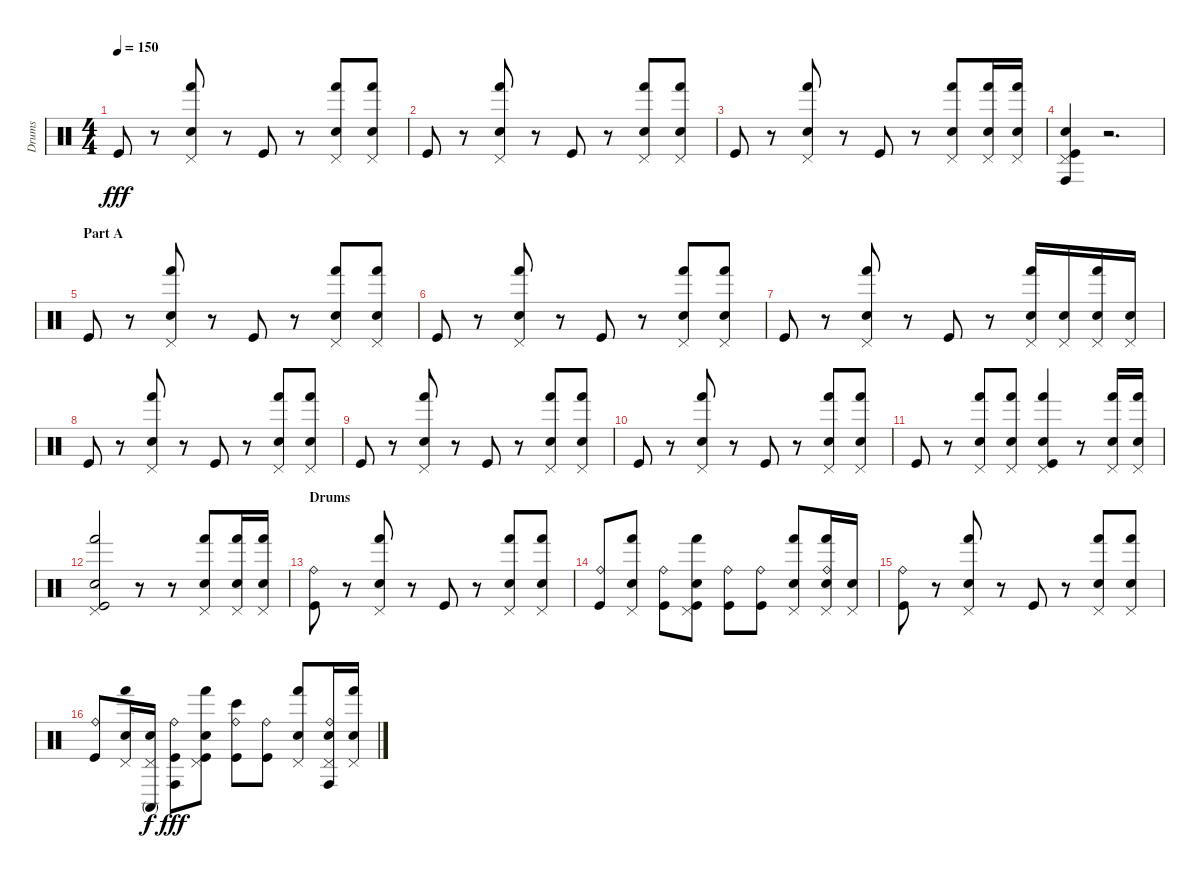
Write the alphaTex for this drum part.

\track ("Drums" "Drums") {instrument percussion}
\staff {score}
\articulation defaults
\ts (4 4)
\tempo 150
\clef neutral
\ks c "Kick (hit)".8{dy fff}
r.8 ("Pedal Hi-Hat (hit)" "Hand (hit)" "Electric Snare (hit)").8 r.8 "Kick (hit)".8 r.8 ("Pedal Hi-Hat (hit)" "Hand (hit)" "Electric Snare (hit)").8 ("Pedal Hi-Hat (hit)" "Hand (hit)" "Electric Snare (hit)").8 |
"Kick (hit)".8 r.8 ("Pedal Hi-Hat (hit)" "Hand (hit)" "Electric Snare (hit)").8 r.8 "Kick (hit)".8 r.8 ("Pedal Hi-Hat (hit)" "Hand (hit)" "Electric Snare (hit)").8 ("Pedal Hi-Hat (hit)" "Hand (hit)" "Electric Snare (hit)").8 |
"Kick (hit)".8 r.8 ("Pedal Hi-Hat (hit)" "Hand (hit)" "Electric Snare (hit)").8 r.8 "Kick (hit)".8 r.8 ("Pedal Hi-Hat (hit)" "Hand (hit)" "Electric Snare (hit)").8 ("Pedal Hi-Hat (hit)" "Hand (hit)" "Electric Snare (hit)").16 ("Pedal Hi-Hat (hit)" "Hand (hit)" "Electric Snare (hit)").16 |
("Pedal Hi-Hat (hit)" "Conga high (hit)" "Electric Snare (hit)" "Kick (hit)").4 r.2{d} |
\section ("" "Part A")
"Kick (hit)".8 r.8 ("Pedal Hi-Hat (hit)" "Hand (hit)" "Electric Snare (hit)").8 r.8 "Kick (hit)".8 r.8 ("Pedal Hi-Hat (hit)" "Hand (hit)" "Electric Snare (hit)").8 ("Pedal Hi-Hat (hit)" "Hand (hit)" "Electric Snare (hit)").8 |
"Kick (hit)".8 r.8 ("Pedal Hi-Hat (hit)" "Hand (hit)" "Electric Snare (hit)").8 r.8 "Kick (hit)".8 r.8 ("Pedal Hi-Hat (hit)" "Hand (hit)" "Electric Snare (hit)").8 ("Pedal Hi-Hat (hit)" "Hand (hit)" "Electric Snare (hit)").8 |
"Kick (hit)".8 r.8 ("Pedal Hi-Hat (hit)" "Hand (hit)" "Electric Snare (hit)").8 r.8 "Kick (hit)".8 r.8 ("Pedal Hi-Hat (hit)" "Hand (hit)" "Electric Snare (hit)").16 ("Pedal Hi-Hat (hit)" "Electric Snare (hit)").16 ("Pedal Hi-Hat (hit)" "Hand (hit)" "Electric Snare (hit)").16 ("Pedal Hi-Hat (hit)" "Electric Snare (hit)").16 |
"Kick (hit)".8 r.8 ("Pedal Hi-Hat (hit)" "Hand (hit)" "Electric Snare (hit)").8 r.8 "Kick (hit)".8 r.8 ("Pedal Hi-Hat (hit)" "Hand (hit)" "Electric Snare (hit)").8 ("Pedal Hi-Hat (hit)" "Hand (hit)" "Electric Snare (hit)").8 |
"Kick (hit)".8 r.8 ("Pedal Hi-Hat (hit)" "Hand (hit)" "Electric Snare (hit)").8 r.8 "Kick (hit)".8 r.8 ("Pedal Hi-Hat (hit)" "Hand (hit)" "Electric Snare (hit)").8 ("Pedal Hi-Hat (hit)" "Hand (hit)" "Electric Snare (hit)").8 |
"Kick (hit)".8 r.8 ("Pedal Hi-Hat (hit)" "Hand (hit)" "Electric Snare (hit)").8 r.8 "Kick (hit)".8 r.8 ("Pedal Hi-Hat (hit)" "Hand (hit)" "Electric Snare (hit)").8 ("Pedal Hi-Hat (hit)" "Hand (hit)" "Electric Snare (hit)").8 |
"Kick (hit)".8 r.8 ("Pedal Hi-Hat (hit)" "Hand (hit)" "Electric Snare (hit)").8 ("Pedal Hi-Hat (hit)" "Hand (hit)" "Electric Snare (hit)").8 ("Pedal Hi-Hat (hit)" "Hand (hit)" "Electric Snare (hit)" "Kick (hit)").4 r.8 ("Pedal Hi-Hat (hit)" "Hand (hit)" "Electric Snare (hit)").16 ("Pedal Hi-Hat (hit)" "Hand (hit)" "Electric Snare (hit)").16 |
("Pedal Hi-Hat (hit)" "Hand (hit)" "Electric Snare (hit)" "Kick (hit)").2 r.8 r.8 ("Pedal Hi-Hat (hit)" "Hand (hit)" "Electric Snare (hit)").8 ("Pedal Hi-Hat (hit)" "Hand (hit)" "Electric Snare (hit)").16 ("Pedal Hi-Hat (hit)" "Hand (hit)" "Electric Snare (hit)").16 |
\section ("" "Drums")
("Ride (bell)" "Kick (hit)").8 r.8 ("Pedal Hi-Hat (hit)" "Hand (hit)" "Electric Snare (hit)").8 r.8 "Kick (hit)".8 r.8 ("Pedal Hi-Hat (hit)" "Hand (hit)" "Electric Snare (hit)").8 ("Pedal Hi-Hat (hit)" "Hand (hit)" "Electric Snare (hit)").8 |
("Ride (bell)" "Kick (hit)").8 ("Pedal Hi-Hat (hit)" "Hand (hit)" "Electric Snare (hit)").8 ("Ride (bell)" "Kick (hit)").8 ("Pedal Hi-Hat (hit)" "Hand (hit)" "Electric Snare (hit)" "Kick (hit)").8 ("Ride (bell)" "Kick (hit)").8 ("Ride (bell)" "Kick (hit)").8 ("Pedal Hi-Hat (hit)" "Hand (hit)" "Electric Snare (hit)").8 ("Ride (bell)" "Pedal Hi-Hat (hit)" "Hand (hit)" "Electric Snare (hit)").16 ("Pedal Hi-Hat (hit)" "Electric Snare (hit)").16 |
("Ride (bell)" "Kick (hit)").8 r.8 ("Pedal Hi-Hat (hit)" "Hand (hit)" "Electric Snare (hit)").8 r.8 "Kick (hit)".8 r.8 ("Pedal Hi-Hat (hit)" "Hand (hit)" "Electric Snare (hit)").8 ("Pedal Hi-Hat (hit)" "Hand (hit)" "Electric Snare (hit)").8 |
("Ride (bell)" "Kick (hit)").8 ("Pedal Hi-Hat (hit)" "Hand (hit)" "Electric Snare (hit)").16 ("Pedal Hi-Hat (hit)" "Conga high (mute)" "Electric Snare (hit)").16{dy f} ("Ride (bell)" "Conga high (hit)" "Kick (hit)").8{dy fff} ("Pedal Hi-Hat (hit)" "Hand (hit)" "Electric Snare (hit)" "Kick (hit)").8 ("Ride (bell)" "Bongo High (hit)" "Kick (hit)").8 ("Ride (bell)" "Kick (hit)").8 ("Pedal Hi-Hat (hit)" "Hand (hit)" "Electric Snare (hit)").8 ("Ride (bell)" "Pedal Hi-Hat (hit)" "Conga high (hit)" "Electric Snare (hit)").16 ("Pedal Hi-Hat (hit)" "Hand (hit)" "Electric Snare (hit)").16
